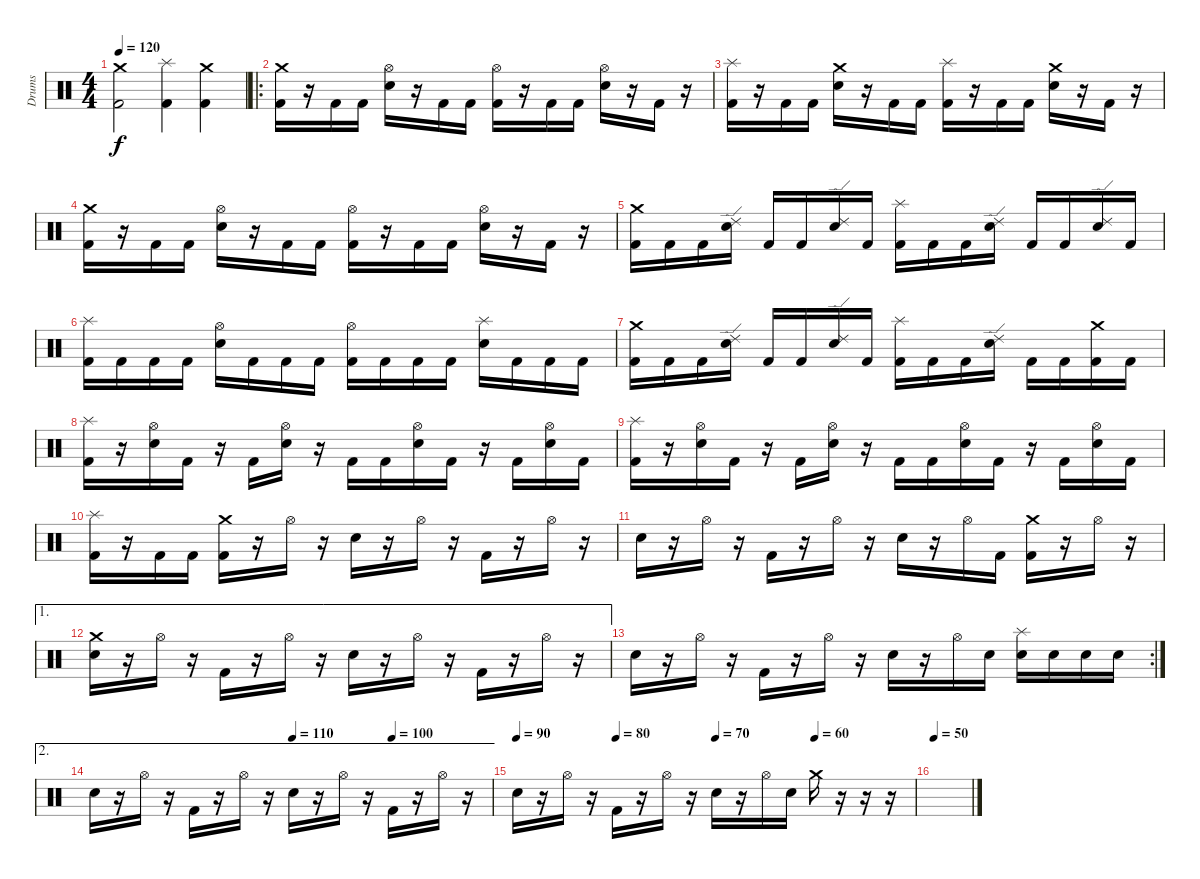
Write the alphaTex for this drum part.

\track ("Drums" "Drums") {instrument percussion}
\staff {score}
\articulation defaults
\ts (4 4)
\tempo 120
\clef neutral
\ks c
("Kick (hit) 2" "Crash medium (hit)").2{dy f} ("Kick (hit) 2" "Splash (hit)").4 ("Kick (hit) 2" "Crash medium (hit)").4 |
\ro
("Kick (hit) 2" "Crash medium (hit)").16 r.16 "Kick (hit) 2".16 "Kick (hit) 2".16 ("Electric Snare (hit)" "Hi-Hat (open)").16 r.16 "Kick (hit) 2".16 "Kick (hit) 2".16 ("Kick (hit) 2" "Hi-Hat (open)").16 r.16 "Kick (hit) 2".16 "Kick (hit) 2".16 ("Electric Snare (hit)" "Hi-Hat (open)").16 r.16 "Kick (hit) 2".16 r.16 |
("Kick (hit) 2" "Splash (hit)").16 r.16 "Kick (hit) 2".16 "Kick (hit) 2".16 ("Electric Snare (hit)" "Crash medium (hit)").16 r.16 "Kick (hit) 2".16 "Kick (hit) 2".16 ("Kick (hit) 2" "Splash (hit)").16 r.16 "Kick (hit) 2".16 "Kick (hit) 2".16 ("Electric Snare (hit)" "Crash medium (hit)").16 r.16 "Kick (hit) 2".16 r.16 |
("Kick (hit) 2" "Crash medium (hit)").16 r.16 "Kick (hit) 2".16 "Kick (hit) 2".16 ("Electric Snare (hit)" "Hi-Hat (open)").16 r.16 "Kick (hit) 2".16 "Kick (hit) 2".16 ("Kick (hit) 2" "Hi-Hat (open)").16 r.16 "Kick (hit) 2".16 "Kick (hit) 2".16 ("Electric Snare (hit)" "Hi-Hat (open)").16 r.16 "Kick (hit) 2".16 r.16 |
("Kick (hit) 2" "Crash medium (hit)").16 "Kick (hit) 2".16 "Kick (hit) 2".16 ("Electric Snare (hit)" "Ride (edge) 2").16 "Kick (hit) 2".16 "Kick (hit) 2".16 ("Electric Snare (hit)" "Ride (edge) 2").16 "Kick (hit) 2".16 ("Kick (hit) 2" "Splash (hit)").16 "Kick (hit) 2".16 "Kick (hit) 2".16 ("Electric Snare (hit)" "Ride (edge) 2").16 "Kick (hit) 2".16 "Kick (hit) 2".16 ("Electric Snare (hit)" "Ride (edge) 2").16 "Kick (hit) 2".16 |
("Kick (hit) 2" "Splash (hit)").16 "Kick (hit) 2".16 "Kick (hit) 2".16 "Kick (hit) 2".16 ("Electric Snare (hit)" "Hi-Hat (open)").16 "Kick (hit) 2".16 "Kick (hit) 2".16 "Kick (hit) 2".16 ("Kick (hit) 2" "Hi-Hat (open)").16 "Kick (hit) 2".16 "Kick (hit) 2".16 "Kick (hit) 2".16 ("Electric Snare (hit)" "Splash (hit)").16 "Kick (hit) 2".16 "Kick (hit) 2".16 "Kick (hit) 2".16 |
("Kick (hit) 2" "Crash medium (hit)").16 "Kick (hit) 2".16 "Kick (hit) 2".16 ("Electric Snare (hit)" "Ride (edge) 2").16 "Kick (hit) 2".16 "Kick (hit) 2".16 ("Electric Snare (hit)" "Ride (edge) 2").16 "Kick (hit) 2".16 ("Kick (hit) 2" "Splash (hit)").16 "Kick (hit) 2".16 "Kick (hit) 2".16 ("Electric Snare (hit)" "Ride (edge) 2").16 "Kick (hit) 2".16 "Kick (hit) 2".16 ("Kick (hit) 2" "Crash medium (hit)").16 "Kick (hit) 2".16 |
("Kick (hit) 2" "Splash (hit)").16 r.16 ("Electric Snare (hit)" "Hi-Hat (open)").16 "Kick (hit) 2".16 r.16 "Kick (hit) 2".16 ("Electric Snare (hit)" "Hi-Hat (open)").16 r.16 "Kick (hit) 2".16 "Kick (hit) 2".16 ("Electric Snare (hit)" "Hi-Hat (open)").16 "Kick (hit) 2".16 r.16 "Kick (hit) 2".16 ("Electric Snare (hit)" "Hi-Hat (open)").16 "Kick (hit) 2".16 |
("Kick (hit) 2" "Splash (hit)").16 r.16 ("Electric Snare (hit)" "Hi-Hat (open)").16 "Kick (hit) 2".16 r.16 "Kick (hit) 2".16 ("Electric Snare (hit)" "Hi-Hat (open)").16 r.16 "Kick (hit) 2".16 "Kick (hit) 2".16 ("Electric Snare (hit)" "Hi-Hat (open)").16 "Kick (hit) 2".16 r.16 "Kick (hit) 2".16 ("Electric Snare (hit)" "Hi-Hat (open)").16 "Kick (hit) 2".16 |
("Kick (hit) 2" "Splash (hit)").16 r.16 "Kick (hit) 2".16 "Kick (hit) 2".16 ("Kick (hit) 2" "Crash medium (hit)").16 r.16 "Hi-Hat (open)".16 r.16 "Electric Snare (hit)".16 r.16 "Hi-Hat (open)".16 r.16 "Kick (hit) 2".16 r.16 "Hi-Hat (open)".16 r.16 |
"Electric Snare (hit)".16 r.16 "Hi-Hat (open)".16 r.16 "Kick (hit) 2".16 r.16 "Hi-Hat (open)".16 r.16 "Electric Snare (hit)".16 r.16 "Hi-Hat (open)".16 "Kick (hit) 2".16 ("Kick (hit) 2" "Crash medium (hit)").16 r.16 "Hi-Hat (open)".16 r.16 |
\ae 1
("Electric Snare (hit)" "Crash medium (hit)").16 r.16 "Hi-Hat (open)".16 r.16 "Kick (hit) 2".16 r.16 "Hi-Hat (open)".16 r.16 "Electric Snare (hit)".16 r.16 "Hi-Hat (open)".16 r.16 "Kick (hit) 2".16 r.16 "Hi-Hat (open)".16 r.16 |
\rc 2 "Electric Snare (hit)".16
r.16 "Hi-Hat (open)".16 r.16 "Kick (hit) 2".16 r.16 "Hi-Hat (open)".16 r.16 "Electric Snare (hit)".16 r.16 "Hi-Hat (open)".16 "Electric Snare (hit)".16 ("Electric Snare (hit)" "Splash (hit)").16 "Electric Snare (hit)".16 "Electric Snare (hit)".16 "Electric Snare (hit)".16 |
\ae 2
\tempo (110 0.5)
\tempo (100 0.75)
"Electric Snare (hit)".16 r.16 "Hi-Hat (open)".16 r.16 "Kick (hit) 2".16 r.16 "Hi-Hat (open)".16 r.16 "Electric Snare (hit)".16 r.16 "Hi-Hat (open)".16 r.16 "Kick (hit) 2".16 r.16 "Hi-Hat (open)".16 r.16 |
\tempo 90
\tempo (80 0.25)
\tempo (70 0.5)
\tempo (60 0.75)
"Electric Snare (hit)".16 r.16 "Hi-Hat (open)".16 r.16 "Kick (hit) 2".16 r.16 "Hi-Hat (open)".16 r.16 "Electric Snare (hit)".16 r.16 "Hi-Hat (open)".16 "Electric Snare (hit)".16 "Crash medium (hit)".16 r.16 r.16 r.16 |
\tempo 50
